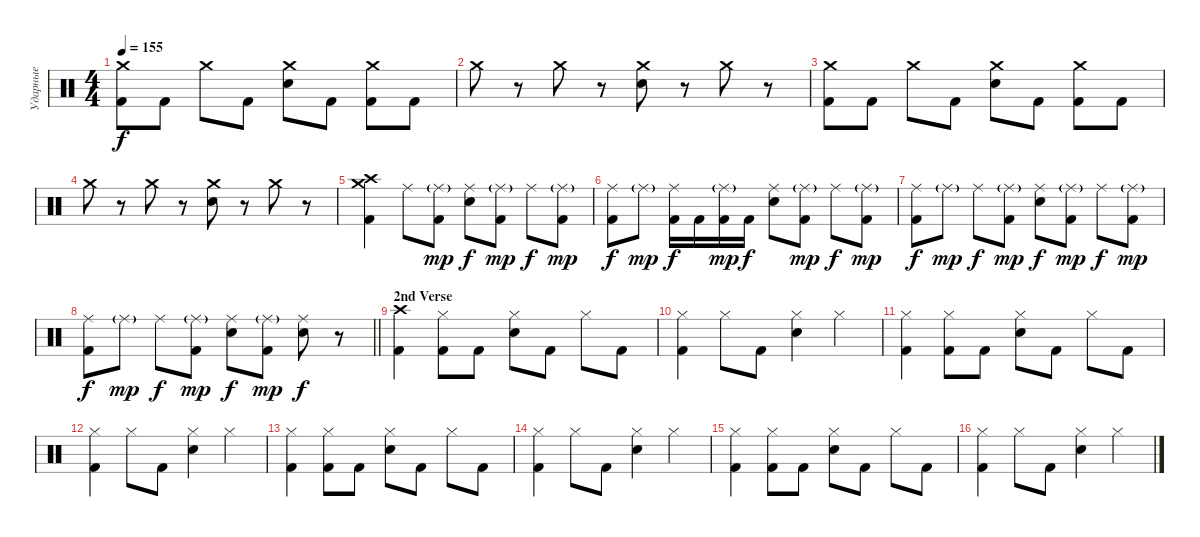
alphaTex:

\track ("Ударные" "Ударные") {instrument percussion}
\staff {score}
\articulation defaults
\ts (4 4)
\tempo 155
\clef neutral
\ks c
("Crash medium (hit)" "Kick (hit) 2").8{dy f} "Kick (hit) 2".8 "Crash medium (hit)".8 "Kick (hit) 2".8 ("Crash medium (hit)" "Electric Snare (hit)").8 "Kick (hit) 2".8 ("Crash medium (hit)" "Kick (hit) 2").8 "Kick (hit) 2".8 |
"Crash medium (hit)".8 r.8 "Crash medium (hit)".8 r.8 ("Crash medium (hit)" "Electric Snare (hit)").8 r.8 "Crash medium (hit)".8 r.8 |
("Crash medium (hit)" "Kick (hit) 2").8 "Kick (hit) 2".8 "Crash medium (hit)".8 "Kick (hit) 2".8 ("Crash medium (hit)" "Electric Snare (hit)").8 "Kick (hit) 2".8 ("Crash medium (hit)" "Kick (hit) 2").8 "Kick (hit) 2".8 |
"Crash medium (hit)".8 r.8 "Crash medium (hit)".8 r.8 ("Crash medium (hit)" "Electric Snare (hit)").8 r.8 "Crash medium (hit)".8 r.8 |
("Crash high (hit)" "Crash medium (hit)" "Kick (hit) 2").4 "Ride (middle)".8 ("Ride (middle)"{g} "Kick (hit) 2").8{dy mp} ("Ride (middle)" "Electric Snare (hit)").8{dy f} ("Ride (middle)"{g} "Kick (hit) 2").8{dy mp} "Ride (middle)".8{dy f} ("Ride (middle)"{g} "Kick (hit) 2").8{dy mp} |
("Ride (middle)" "Kick (hit) 2").8{dy f} "Ride (middle)"{g}.8{dy mp} ("Ride (middle)" "Kick (hit) 2").16{dy f} "Kick (hit) 2".16 ("Ride (middle)"{g} "Kick (hit) 2").16{dy mp} "Kick (hit) 2".16{dy f} ("Ride (middle)" "Electric Snare (hit)").8 ("Ride (middle)"{g} "Kick (hit) 2").8{dy mp} "Ride (middle)".8{dy f} ("Ride (middle)"{g} "Kick (hit) 2").8{dy mp} |
("Ride (middle)" "Kick (hit) 2").8{dy f} "Ride (middle)"{g}.8{dy mp} "Ride (middle)".8{dy f} ("Ride (middle)"{g} "Kick (hit) 2").8{dy mp} ("Ride (middle)" "Electric Snare (hit)").8{dy f} ("Ride (middle)"{g} "Kick (hit) 2").8{dy mp} "Ride (middle)".8{dy f} ("Ride (middle)"{g} "Kick (hit) 2").8{dy mp} |
\barLineRight lightlight
("Ride (middle)" "Kick (hit) 2").8{dy f} "Ride (middle)"{g}.8{dy mp} "Ride (middle)".8{dy f} ("Ride (middle)"{g} "Kick (hit) 2").8{dy mp} ("Ride (middle)" "Electric Snare (hit)").8{dy f} ("Ride (middle)"{g} "Kick (hit) 2").8{dy mp} ("Ride (middle)" "Electric Snare (hit)").8{dy f} r.8 |
\section ("" "2nd Verse")
("Crash high (hit)" "Kick (hit) 2").4 ("Hi-Hat (closed)" "Kick (hit) 2").8 "Kick (hit) 2".8 ("Hi-Hat (closed)" "Electric Snare (hit)").8 "Kick (hit) 2".8 "Hi-Hat (closed)".8 "Kick (hit) 2".8 |
("Hi-Hat (closed)" "Kick (hit) 2").4 "Hi-Hat (closed)".8 "Kick (hit) 2".8 ("Hi-Hat (closed)" "Electric Snare (hit)").4 "Hi-Hat (closed)".4 |
("Hi-Hat (closed)" "Kick (hit) 2").4 ("Hi-Hat (closed)" "Kick (hit) 2").8 "Kick (hit) 2".8 ("Hi-Hat (closed)" "Electric Snare (hit)").8 "Kick (hit) 2".8 "Hi-Hat (closed)".8 "Kick (hit) 2".8 |
("Hi-Hat (closed)" "Kick (hit) 2").4 "Hi-Hat (closed)".8 "Kick (hit) 2".8 ("Hi-Hat (closed)" "Electric Snare (hit)").4 "Hi-Hat (closed)".4 |
("Hi-Hat (closed)" "Kick (hit) 2").4 ("Hi-Hat (closed)" "Kick (hit) 2").8 "Kick (hit) 2".8 ("Hi-Hat (closed)" "Electric Snare (hit)").8 "Kick (hit) 2".8 "Hi-Hat (closed)".8 "Kick (hit) 2".8 |
("Hi-Hat (closed)" "Kick (hit) 2").4 "Hi-Hat (closed)".8 "Kick (hit) 2".8 ("Hi-Hat (closed)" "Electric Snare (hit)").4 "Hi-Hat (closed)".4 |
("Hi-Hat (closed)" "Kick (hit) 2").4 ("Hi-Hat (closed)" "Kick (hit) 2").8 "Kick (hit) 2".8 ("Hi-Hat (closed)" "Electric Snare (hit)").8 "Kick (hit) 2".8 "Hi-Hat (closed)".8 "Kick (hit) 2".8 |
("Hi-Hat (closed)" "Kick (hit) 2").4 "Hi-Hat (closed)".8 "Kick (hit) 2".8 ("Hi-Hat (closed)" "Electric Snare (hit)").4 "Hi-Hat (closed)".4
